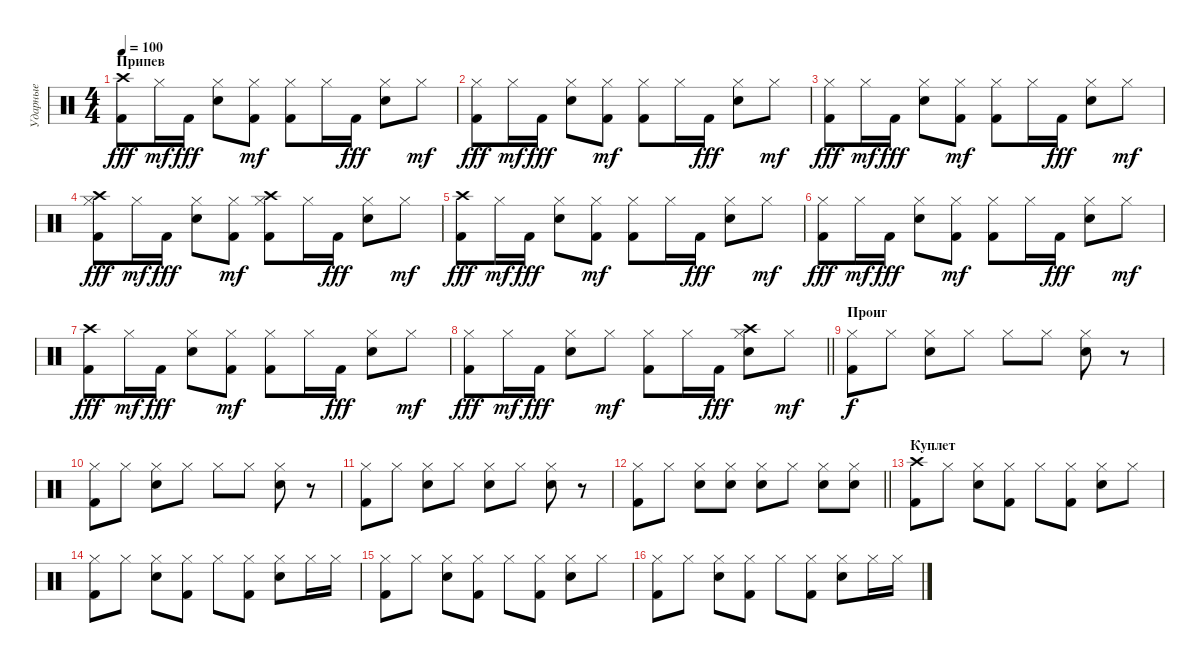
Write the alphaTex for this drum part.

\track ("Ударные" "Ударные") {instrument percussion}
\staff {score}
\articulation defaults
\ts (4 4)
\section ("" "Припев")
\tempo 100
\clef neutral
\ks c
("Kick (hit) 2" "Crash high (hit)").8{dy fff} "Hi-Hat (closed)".16{dy mf} "Kick (hit) 2".16{dy fff} ("Hi-Hat (closed)" "Electric Snare (hit)").8 ("Kick (hit) 2" "Hi-Hat (closed)").8{dy mf} ("Kick (hit) 2" "Hi-Hat (closed)").8 "Hi-Hat (closed)".16 "Kick (hit) 2".16{dy fff} ("Hi-Hat (closed)" "Electric Snare (hit)").8 "Hi-Hat (closed)".8{dy mf} |
("Kick (hit) 2" "Hi-Hat (closed)").8{dy fff} "Hi-Hat (closed)".16{dy mf} "Kick (hit) 2".16{dy fff} ("Hi-Hat (closed)" "Electric Snare (hit)").8 ("Kick (hit) 2" "Hi-Hat (closed)").8{dy mf} ("Kick (hit) 2" "Hi-Hat (closed)").8 "Hi-Hat (closed)".16 "Kick (hit) 2".16{dy fff} ("Hi-Hat (closed)" "Electric Snare (hit)").8 "Hi-Hat (closed)".8{dy mf} |
("Kick (hit) 2" "Hi-Hat (closed)").8{dy fff} "Hi-Hat (closed)".16{dy mf} "Kick (hit) 2".16{dy fff} ("Hi-Hat (closed)" "Electric Snare (hit)").8 ("Kick (hit) 2" "Hi-Hat (closed)").8{dy mf} ("Kick (hit) 2" "Hi-Hat (closed)").8 "Hi-Hat (closed)".16 "Kick (hit) 2".16{dy fff} ("Hi-Hat (closed)" "Electric Snare (hit)").8 "Hi-Hat (closed)".8{dy mf} |
("Kick (hit) 2" "Crash high (hit)" "Hi-Hat (closed)").8{dy fff} "Hi-Hat (closed)".16{dy mf} "Kick (hit) 2".16{dy fff} ("Hi-Hat (closed)" "Electric Snare (hit)").8 ("Kick (hit) 2" "Hi-Hat (closed)").8{dy mf} ("Kick (hit) 2" "Crash high (hit)" "Hi-Hat (closed)").8 "Hi-Hat (closed)".16 "Kick (hit) 2".16{dy fff} ("Hi-Hat (closed)" "Electric Snare (hit)").8 "Hi-Hat (closed)".8{dy mf} |
("Kick (hit) 2" "Crash high (hit)").8{dy fff} "Hi-Hat (closed)".16{dy mf} "Kick (hit) 2".16{dy fff} ("Hi-Hat (closed)" "Electric Snare (hit)").8 ("Kick (hit) 2" "Hi-Hat (closed)").8{dy mf} ("Kick (hit) 2" "Hi-Hat (closed)").8 "Hi-Hat (closed)".16 "Kick (hit) 2".16{dy fff} ("Hi-Hat (closed)" "Electric Snare (hit)").8 "Hi-Hat (closed)".8{dy mf} |
("Kick (hit) 2" "Hi-Hat (closed)").8{dy fff} "Hi-Hat (closed)".16{dy mf} "Kick (hit) 2".16{dy fff} ("Hi-Hat (closed)" "Electric Snare (hit)").8 ("Kick (hit) 2" "Hi-Hat (closed)").8{dy mf} ("Kick (hit) 2" "Hi-Hat (closed)").8 "Hi-Hat (closed)".16 "Kick (hit) 2".16{dy fff} ("Hi-Hat (closed)" "Electric Snare (hit)").8 "Hi-Hat (closed)".8{dy mf} |
("Kick (hit) 2" "Crash high (hit)").8{dy fff} "Hi-Hat (closed)".16{dy mf} "Kick (hit) 2".16{dy fff} ("Hi-Hat (closed)" "Electric Snare (hit)").8 ("Kick (hit) 2" "Hi-Hat (closed)").8{dy mf} ("Kick (hit) 2" "Hi-Hat (closed)").8 "Hi-Hat (closed)".16 "Kick (hit) 2".16{dy fff} ("Hi-Hat (closed)" "Electric Snare (hit)").8 "Hi-Hat (closed)".8{dy mf} |
\barLineRight lightlight
("Kick (hit) 2" "Hi-Hat (closed)").8{dy fff} "Hi-Hat (closed)".16{dy mf} "Kick (hit) 2".16{dy fff} ("Hi-Hat (closed)" "Electric Snare (hit)").8 "Hi-Hat (closed)".8{dy mf} ("Kick (hit) 2" "Hi-Hat (closed)").8 "Hi-Hat (closed)".16 "Kick (hit) 2".16{dy fff} ("Crash high (hit)" "Hi-Hat (closed)" "Electric Snare (hit)").8 "Hi-Hat (closed)".8{dy mf} |
\section ("" "Проиг")
("Hi-Hat (closed)" "Kick (hit) 2").8{dy f} "Hi-Hat (closed)".8 ("Hi-Hat (closed)" "Electric Snare (hit)").8 "Hi-Hat (closed)".8 "Hi-Hat (closed)".8 "Hi-Hat (closed)".8 ("Hi-Hat (closed)" "Electric Snare (hit)").8 r.8 |
("Hi-Hat (closed)" "Kick (hit) 2").8 "Hi-Hat (closed)".8 ("Hi-Hat (closed)" "Electric Snare (hit)").8 "Hi-Hat (closed)".8 "Hi-Hat (closed)".8 "Hi-Hat (closed)".8 ("Hi-Hat (closed)" "Electric Snare (hit)").8 r.8 |
("Hi-Hat (closed)" "Kick (hit) 2").8 "Hi-Hat (closed)".8 ("Hi-Hat (closed)" "Electric Snare (hit)").8 "Hi-Hat (closed)".8 ("Hi-Hat (closed)" "Electric Snare (hit)").8 "Hi-Hat (closed)".8 ("Hi-Hat (closed)" "Electric Snare (hit)").8 r.8 |
\barLineRight lightlight
("Hi-Hat (closed)" "Kick (hit) 2").8 "Hi-Hat (closed)".8 ("Hi-Hat (closed)" "Electric Snare (hit)").8 ("Hi-Hat (closed)" "Electric Snare (hit)").8 ("Hi-Hat (closed)" "Electric Snare (hit)").8 "Hi-Hat (closed)".8 ("Hi-Hat (closed)" "Electric Snare (hit)").8 ("Hi-Hat (closed)" "Electric Snare (hit)").8 |
\section ("" "Куплет")
("Crash high (hit)" "Kick (hit) 2").8 "Hi-Hat (closed)".8 ("Hi-Hat (closed)" "Electric Snare (hit)").8 ("Hi-Hat (closed)" "Kick (hit) 2").8 "Hi-Hat (closed)".8 ("Hi-Hat (closed)" "Kick (hit) 2").8 ("Hi-Hat (closed)" "Electric Snare (hit)").8 "Hi-Hat (closed)".8 |
("Hi-Hat (closed)" "Kick (hit) 2").8 "Hi-Hat (closed)".8 ("Hi-Hat (closed)" "Electric Snare (hit)").8 ("Hi-Hat (closed)" "Kick (hit) 2").8 "Hi-Hat (closed)".8 ("Hi-Hat (closed)" "Kick (hit) 2").8 ("Hi-Hat (closed)" "Electric Snare (hit)").8 "Hi-Hat (closed)".16 "Hi-Hat (closed)".16 |
("Hi-Hat (closed)" "Kick (hit) 2").8 "Hi-Hat (closed)".8 ("Hi-Hat (closed)" "Electric Snare (hit)").8 ("Hi-Hat (closed)" "Kick (hit) 2").8 "Hi-Hat (closed)".8 ("Hi-Hat (closed)" "Kick (hit) 2").8 ("Hi-Hat (closed)" "Electric Snare (hit)").8 "Hi-Hat (closed)".8 |
("Hi-Hat (closed)" "Kick (hit) 2").8 "Hi-Hat (closed)".8 ("Hi-Hat (closed)" "Electric Snare (hit)").8 ("Hi-Hat (closed)" "Kick (hit) 2").8 "Hi-Hat (closed)".8 ("Hi-Hat (closed)" "Kick (hit) 2").8 ("Hi-Hat (closed)" "Electric Snare (hit)").8 "Hi-Hat (closed)".16 "Hi-Hat (closed)".16
